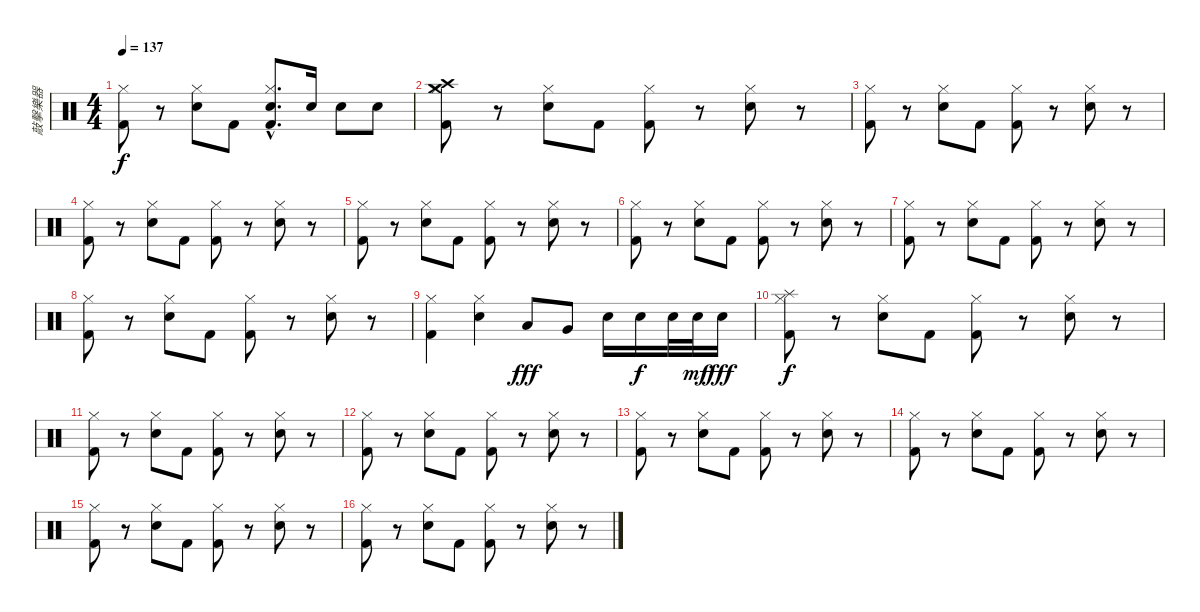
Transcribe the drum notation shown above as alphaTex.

\track ("敲擊樂器" "敲擊樂器") {instrument percussion}
\staff {score}
\articulation defaults
\ts (4 4)
\tempo 137
\clef neutral
\ks c
("Kick (hit) 2" "Hi-Hat (closed)").8{dy f} r.8 ("Snare (hit) 2" "Hi-Hat (closed)").8 "Kick (hit) 2".8 ("Kick (hit) 2"{hac} "Snare (hit) 2"{hac} "Hi-Hat (closed)"{hac}).8{d} "Snare (hit) 2".16 "Snare (hit) 2".8 "Snare (hit) 2".8 |
("Crash high (hit)" "Crash medium (hit)" "Kick (hit) 2" "Hi-Hat (closed)").8 r.8 ("Snare (hit) 2" "Hi-Hat (closed)").8 "Kick (hit) 2".8 ("Kick (hit) 2" "Hi-Hat (closed)").8 r.8 ("Snare (hit) 2" "Hi-Hat (closed)").8 r.8 |
("Kick (hit) 2" "Hi-Hat (closed)").8 r.8 ("Snare (hit) 2" "Hi-Hat (closed)").8 "Kick (hit) 2".8 ("Kick (hit) 2" "Hi-Hat (closed)").8 r.8 ("Snare (hit) 2" "Hi-Hat (closed)").8 r.8 |
("Kick (hit) 2" "Hi-Hat (closed)").8 r.8 ("Snare (hit) 2" "Hi-Hat (closed)").8 "Kick (hit) 2".8 ("Kick (hit) 2" "Hi-Hat (closed)").8 r.8 ("Snare (hit) 2" "Hi-Hat (closed)").8 r.8 |
("Kick (hit) 2" "Hi-Hat (closed)").8 r.8 ("Snare (hit) 2" "Hi-Hat (closed)").8 "Kick (hit) 2".8 ("Kick (hit) 2" "Hi-Hat (closed)").8 r.8 ("Snare (hit) 2" "Hi-Hat (closed)").8 r.8 |
("Kick (hit) 2" "Hi-Hat (closed)").8 r.8 ("Snare (hit) 2" "Hi-Hat (closed)").8 "Kick (hit) 2".8 ("Kick (hit) 2" "Hi-Hat (closed)").8 r.8 ("Snare (hit) 2" "Hi-Hat (closed)").8 r.8 |
("Kick (hit) 2" "Hi-Hat (closed)").8 r.8 ("Snare (hit) 2" "Hi-Hat (closed)").8 "Kick (hit) 2".8 ("Kick (hit) 2" "Hi-Hat (closed)").8 r.8 ("Snare (hit) 2" "Hi-Hat (closed)").8 r.8 |
("Kick (hit) 2" "Hi-Hat (closed)").8 r.8 ("Snare (hit) 2" "Hi-Hat (closed)").8 "Kick (hit) 2".8 ("Kick (hit) 2" "Hi-Hat (closed)").8 r.8 ("Snare (hit) 2" "Hi-Hat (closed)").8 r.8 |
("Kick (hit) 2" "Hi-Hat (closed)").4 ("Snare (hit) 2" "Hi-Hat (closed)").4 "Low Tom (hit)".8{dy fff} "Very Low Tom (hit)".8 "Snare (hit) 2".16 "Snare (hit) 2".16{dy f} "Snare (hit) 2".32 "Snare (hit) 2".32{dy mf} "Snare (hit) 2".16{dy fff} |
("Splash (hit)" "Kick (hit) 2" "Hi-Hat (closed)").8{dy f} r.8 ("Snare (hit) 2" "Hi-Hat (closed)").8 "Kick (hit) 2".8 ("Kick (hit) 2" "Hi-Hat (closed)").8 r.8 ("Snare (hit) 2" "Hi-Hat (closed)").8 r.8 |
("Kick (hit) 2" "Hi-Hat (closed)").8 r.8 ("Snare (hit) 2" "Hi-Hat (closed)").8 "Kick (hit) 2".8 ("Kick (hit) 2" "Hi-Hat (closed)").8 r.8 ("Snare (hit) 2" "Hi-Hat (closed)").8 r.8 |
("Kick (hit) 2" "Hi-Hat (closed)").8 r.8 ("Snare (hit) 2" "Hi-Hat (closed)").8 "Kick (hit) 2".8 ("Kick (hit) 2" "Hi-Hat (closed)").8 r.8 ("Snare (hit) 2" "Hi-Hat (closed)").8 r.8 |
("Kick (hit) 2" "Hi-Hat (closed)").8 r.8 ("Snare (hit) 2" "Hi-Hat (closed)").8 "Kick (hit) 2".8 ("Kick (hit) 2" "Hi-Hat (closed)").8 r.8 ("Snare (hit) 2" "Hi-Hat (closed)").8 r.8 |
("Kick (hit) 2" "Hi-Hat (closed)").8 r.8 ("Snare (hit) 2" "Hi-Hat (closed)").8 "Kick (hit) 2".8 ("Kick (hit) 2" "Hi-Hat (closed)").8 r.8 ("Snare (hit) 2" "Hi-Hat (closed)").8 r.8 |
("Kick (hit) 2" "Hi-Hat (closed)").8 r.8 ("Snare (hit) 2" "Hi-Hat (closed)").8 "Kick (hit) 2".8 ("Kick (hit) 2" "Hi-Hat (closed)").8 r.8 ("Snare (hit) 2" "Hi-Hat (closed)").8 r.8 |
("Kick (hit) 2" "Hi-Hat (closed)").8 r.8 ("Snare (hit) 2" "Hi-Hat (closed)").8 "Kick (hit) 2".8 ("Kick (hit) 2" "Hi-Hat (closed)").8 r.8 ("Snare (hit) 2" "Hi-Hat (closed)").8 r.8
